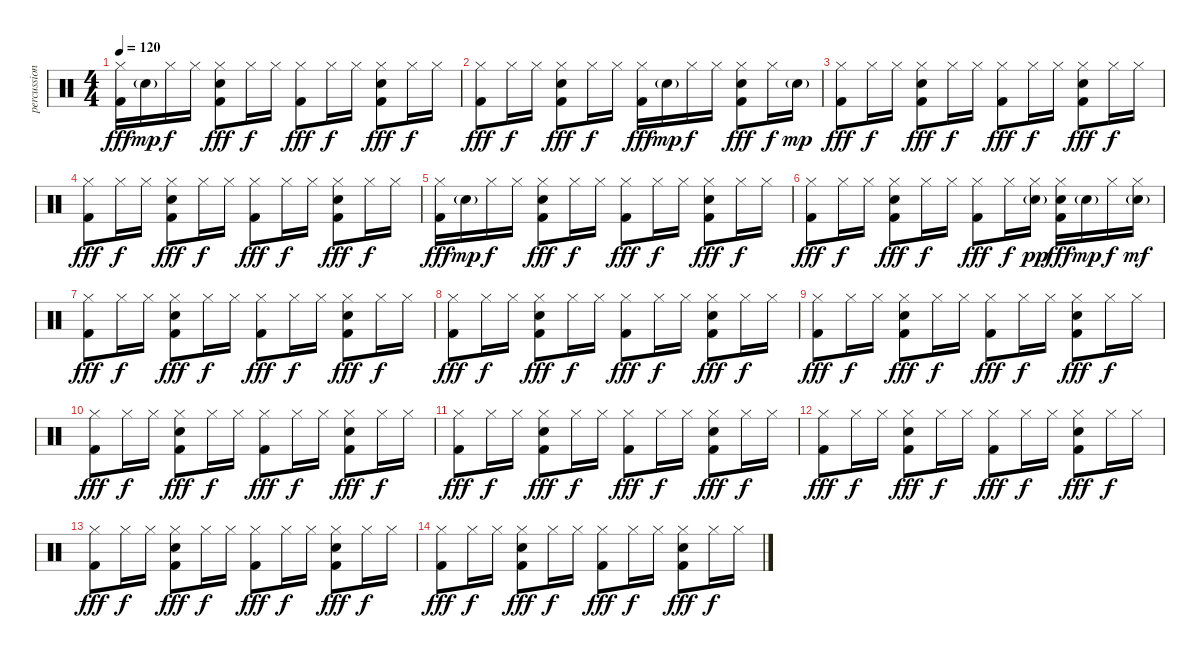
\track ("percussion" "percussion") {instrument percussion}
\staff {score}
\articulation defaults
\ts (4 4)
\tempo 120
\clef neutral
\ks c
("Hi-Hat (closed)" "Kick (hit) 2").16{dy fff} "Electric Snare (hit)"{g}.16{dy mp} "Hi-Hat (closed)".16{dy f} "Hi-Hat (closed)".16 ("Snare (hit) 2" "Hi-Hat (closed)" "Kick (hit) 2").8{dy fff} "Hi-Hat (closed)".16{dy f} "Hi-Hat (closed)".16 ("Hi-Hat (closed)" "Kick (hit) 2").8{dy fff} "Hi-Hat (closed)".16{dy f} "Hi-Hat (closed)".16 ("Snare (hit) 2" "Hi-Hat (closed)" "Kick (hit) 2").8{dy fff} "Hi-Hat (closed)".16{dy f} "Hi-Hat (closed)".16 |
("Hi-Hat (closed)" "Kick (hit) 2").8{dy fff} "Hi-Hat (closed)".16{dy f} "Hi-Hat (closed)".16 ("Snare (hit) 2" "Hi-Hat (closed)" "Kick (hit) 2").8{dy fff} "Hi-Hat (closed)".16{dy f} "Hi-Hat (closed)".16 ("Hi-Hat (closed)" "Kick (hit) 2").16{dy fff} "Electric Snare (hit)"{g}.16{dy mp} "Hi-Hat (closed)".16{dy f} "Hi-Hat (closed)".16 ("Snare (hit) 2" "Hi-Hat (closed)" "Kick (hit) 2").8{dy fff} "Hi-Hat (closed)".16{dy f} "Electric Snare (hit)"{g}.16{dy mp} |
("Hi-Hat (closed)" "Kick (hit) 2").8{dy fff} "Hi-Hat (closed)".16{dy f} "Hi-Hat (closed)".16 ("Snare (hit) 2" "Hi-Hat (closed)" "Kick (hit) 2").8{dy fff} "Hi-Hat (closed)".16{dy f} "Hi-Hat (closed)".16 ("Hi-Hat (closed)" "Kick (hit) 2").8{dy fff} "Hi-Hat (closed)".16{dy f} "Hi-Hat (closed)".16 ("Snare (hit) 2" "Hi-Hat (closed)" "Kick (hit) 2").8{dy fff} "Hi-Hat (closed)".16{dy f} "Hi-Hat (closed)".16 |
("Hi-Hat (closed)" "Kick (hit) 2").8{dy fff} "Hi-Hat (closed)".16{dy f} "Hi-Hat (closed)".16 ("Snare (hit) 2" "Hi-Hat (closed)" "Kick (hit) 2").8{dy fff} "Hi-Hat (closed)".16{dy f} "Hi-Hat (closed)".16 ("Hi-Hat (closed)" "Kick (hit) 2").8{dy fff} "Hi-Hat (closed)".16{dy f} "Hi-Hat (closed)".16 ("Snare (hit) 2" "Hi-Hat (closed)" "Kick (hit) 2").8{dy fff} "Hi-Hat (closed)".16{dy f} "Hi-Hat (closed)".16 |
("Hi-Hat (closed)" "Kick (hit) 2").16{dy fff} "Electric Snare (hit)"{g}.16{dy mp} "Hi-Hat (closed)".16{dy f} "Hi-Hat (closed)".16 ("Snare (hit) 2" "Hi-Hat (closed)" "Kick (hit) 2").8{dy fff} "Hi-Hat (closed)".16{dy f} "Hi-Hat (closed)".16 ("Hi-Hat (closed)" "Kick (hit) 2").8{dy fff} "Hi-Hat (closed)".16{dy f} "Hi-Hat (closed)".16 ("Snare (hit) 2" "Hi-Hat (closed)" "Kick (hit) 2").8{dy fff} "Hi-Hat (closed)".16{dy f} "Hi-Hat (closed)".16 |
("Hi-Hat (closed)" "Kick (hit) 2").8{dy fff} "Hi-Hat (closed)".16{dy f} "Hi-Hat (closed)".16 ("Snare (hit) 2" "Hi-Hat (closed)" "Kick (hit) 2").8{dy fff} "Hi-Hat (closed)".16{dy f} "Hi-Hat (closed)".16 ("Hi-Hat (closed)" "Kick (hit) 2").8{dy fff} "Hi-Hat (closed)".16{dy f} ("Electric Snare (hit)"{g} "Hi-Hat (closed)").16{dy pp} ("Snare (hit) 2" "Hi-Hat (closed)" "Kick (hit) 2").16{dy fff} "Electric Snare (hit)"{g}.16{dy mp} "Hi-Hat (closed)".16{dy f} ("Electric Snare (hit)"{g} "Hi-Hat (closed)").16{dy mf} |
("Hi-Hat (closed)" "Kick (hit) 2").8{dy fff} "Hi-Hat (closed)".16{dy f} "Hi-Hat (closed)".16 ("Snare (hit) 2" "Hi-Hat (closed)" "Kick (hit) 2").8{dy fff} "Hi-Hat (closed)".16{dy f} "Hi-Hat (closed)".16 ("Hi-Hat (closed)" "Kick (hit) 2").8{dy fff} "Hi-Hat (closed)".16{dy f} "Hi-Hat (closed)".16 ("Snare (hit) 2" "Hi-Hat (closed)" "Kick (hit) 2").8{dy fff} "Hi-Hat (closed)".16{dy f} "Hi-Hat (closed)".16 |
("Hi-Hat (closed)" "Kick (hit) 2").8{dy fff} "Hi-Hat (closed)".16{dy f} "Hi-Hat (closed)".16 ("Snare (hit) 2" "Hi-Hat (closed)" "Kick (hit) 2").8{dy fff} "Hi-Hat (closed)".16{dy f} "Hi-Hat (closed)".16 ("Hi-Hat (closed)" "Kick (hit) 2").8{dy fff} "Hi-Hat (closed)".16{dy f} "Hi-Hat (closed)".16 ("Snare (hit) 2" "Hi-Hat (closed)" "Kick (hit) 2").8{dy fff} "Hi-Hat (closed)".16{dy f} "Hi-Hat (closed)".16 |
("Hi-Hat (closed)" "Kick (hit) 2").8{dy fff} "Hi-Hat (closed)".16{dy f} "Hi-Hat (closed)".16 ("Snare (hit) 2" "Hi-Hat (closed)" "Kick (hit) 2").8{dy fff} "Hi-Hat (closed)".16{dy f} "Hi-Hat (closed)".16 ("Hi-Hat (closed)" "Kick (hit) 2").8{dy fff} "Hi-Hat (closed)".16{dy f} "Hi-Hat (closed)".16 ("Snare (hit) 2" "Hi-Hat (closed)" "Kick (hit) 2").8{dy fff} "Hi-Hat (closed)".16{dy f} "Hi-Hat (closed)".16 |
("Hi-Hat (closed)" "Kick (hit) 2").8{dy fff} "Hi-Hat (closed)".16{dy f} "Hi-Hat (closed)".16 ("Snare (hit) 2" "Hi-Hat (closed)" "Kick (hit) 2").8{dy fff} "Hi-Hat (closed)".16{dy f} "Hi-Hat (closed)".16 ("Hi-Hat (closed)" "Kick (hit) 2").8{dy fff} "Hi-Hat (closed)".16{dy f} "Hi-Hat (closed)".16 ("Snare (hit) 2" "Hi-Hat (closed)" "Kick (hit) 2").8{dy fff} "Hi-Hat (closed)".16{dy f} "Hi-Hat (closed)".16 |
("Hi-Hat (closed)" "Kick (hit) 2").8{dy fff} "Hi-Hat (closed)".16{dy f} "Hi-Hat (closed)".16 ("Snare (hit) 2" "Hi-Hat (closed)" "Kick (hit) 2").8{dy fff} "Hi-Hat (closed)".16{dy f} "Hi-Hat (closed)".16 ("Hi-Hat (closed)" "Kick (hit) 2").8{dy fff} "Hi-Hat (closed)".16{dy f} "Hi-Hat (closed)".16 ("Snare (hit) 2" "Hi-Hat (closed)" "Kick (hit) 2").8{dy fff} "Hi-Hat (closed)".16{dy f} "Hi-Hat (closed)".16 |
("Hi-Hat (closed)" "Kick (hit) 2").8{dy fff} "Hi-Hat (closed)".16{dy f} "Hi-Hat (closed)".16 ("Snare (hit) 2" "Hi-Hat (closed)" "Kick (hit) 2").8{dy fff} "Hi-Hat (closed)".16{dy f} "Hi-Hat (closed)".16 ("Hi-Hat (closed)" "Kick (hit) 2").8{dy fff} "Hi-Hat (closed)".16{dy f} "Hi-Hat (closed)".16 ("Snare (hit) 2" "Hi-Hat (closed)" "Kick (hit) 2").8{dy fff} "Hi-Hat (closed)".16{dy f} "Hi-Hat (closed)".16 |
("Hi-Hat (closed)" "Kick (hit) 2").8{dy fff} "Hi-Hat (closed)".16{dy f} "Hi-Hat (closed)".16 ("Snare (hit) 2" "Hi-Hat (closed)" "Kick (hit) 2").8{dy fff} "Hi-Hat (closed)".16{dy f} "Hi-Hat (closed)".16 ("Hi-Hat (closed)" "Kick (hit) 2").8{dy fff} "Hi-Hat (closed)".16{dy f} "Hi-Hat (closed)".16 ("Snare (hit) 2" "Hi-Hat (closed)" "Kick (hit) 2").8{dy fff} "Hi-Hat (closed)".16{dy f} "Hi-Hat (closed)".16 |
("Hi-Hat (closed)" "Kick (hit) 2").8{dy fff} "Hi-Hat (closed)".16{dy f} "Hi-Hat (closed)".16 ("Snare (hit) 2" "Hi-Hat (closed)" "Kick (hit) 2").8{dy fff} "Hi-Hat (closed)".16{dy f} "Hi-Hat (closed)".16 ("Hi-Hat (closed)" "Kick (hit) 2").8{dy fff} "Hi-Hat (closed)".16{dy f} "Hi-Hat (closed)".16 ("Snare (hit) 2" "Hi-Hat (closed)" "Kick (hit) 2").8{dy fff} "Hi-Hat (closed)".16{dy f} "Hi-Hat (closed)".16
